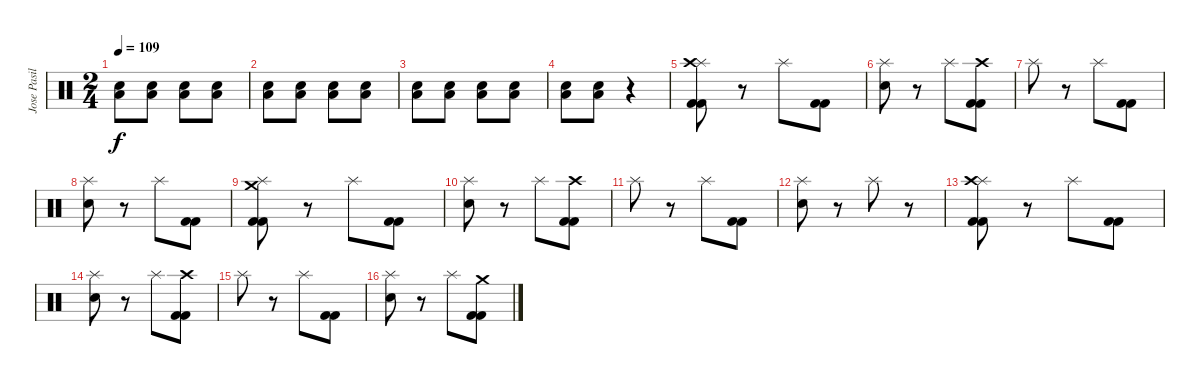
\track ("Jose Pasillas" "Jose Pasil") {instrument percussion}
\staff {score}
\articulation defaults
\ts (2 4)
\tempo 109
\clef neutral
\ks c
("Low Floor Tom (hit)" "Electric Snare (hit)").8{dy f volume 8} ("Low Floor Tom (hit)" "Electric Snare (hit)").8 ("Low Floor Tom (hit)" "Electric Snare (hit)").8 ("Low Floor Tom (hit)" "Electric Snare (hit)").8 |
("Low Floor Tom (hit)" "Electric Snare (hit)").8{volume 10} ("Low Floor Tom (hit)" "Electric Snare (hit)").8 ("Low Floor Tom (hit)" "Electric Snare (hit)").8 ("Low Floor Tom (hit)" "Electric Snare (hit)").8 |
("Low Floor Tom (hit)" "Electric Snare (hit)").8{volume 12} ("Low Floor Tom (hit)" "Electric Snare (hit)").8 ("Low Floor Tom (hit)" "Electric Snare (hit)").8 ("Low Floor Tom (hit)" "Electric Snare (hit)").8 |
("Low Floor Tom (hit)" "Electric Snare (hit)").8{volume 16} ("Low Floor Tom (hit)" "Electric Snare (hit)").8 r.4 |
("Splash (hit)" "Crash high (hit)" "Kick (hit) 2" "Kick (hit) 2").8 r.8 "Splash (hit)".8 ("Kick (hit) 2" "Kick (hit) 2").8 |
("Splash (hit)" "Electric Snare (hit)").8 r.8 "Splash (hit)".8 ("Crash high (hit)" "Kick (hit) 2" "Kick (hit) 2").8 |
"Splash (hit)".8 r.8 "Splash (hit)".8 ("Kick (hit) 2" "Kick (hit) 2").8 |
("Splash (hit)" "Electric Snare (hit)").8 r.8 "Splash (hit)".8 ("Kick (hit) 2" "Kick (hit) 2").8 |
("Splash (hit)" "Crash medium (hit)" "Kick (hit) 2" "Kick (hit) 2").8 r.8 "Splash (hit)".8 ("Kick (hit) 2" "Kick (hit) 2").8 |
("Splash (hit)" "Electric Snare (hit)").8 r.8 "Splash (hit)".8 ("Crash high (hit)" "Kick (hit) 2" "Kick (hit) 2").8 |
"Splash (hit)".8 r.8 "Splash (hit)".8 ("Kick (hit) 2" "Kick (hit) 2").8 |
("Splash (hit)" "Electric Snare (hit)").8 r.8 "Splash (hit)".8 r.8 |
("Splash (hit)" "Crash high (hit)" "Kick (hit) 2" "Kick (hit) 2").8 r.8 "Splash (hit)".8 ("Kick (hit) 2" "Kick (hit) 2").8 |
("Splash (hit)" "Electric Snare (hit)").8 r.8 "Splash (hit)".8 ("Crash high (hit)" "Kick (hit) 2" "Kick (hit) 2").8 |
"Splash (hit)".8 r.8 "Splash (hit)".8 ("Kick (hit) 2" "Kick (hit) 2").8 |
("Splash (hit)" "Electric Snare (hit)").8 r.8 "Splash (hit)".8 ("Crash medium (hit)" "Kick (hit) 2" "Kick (hit) 2").8
